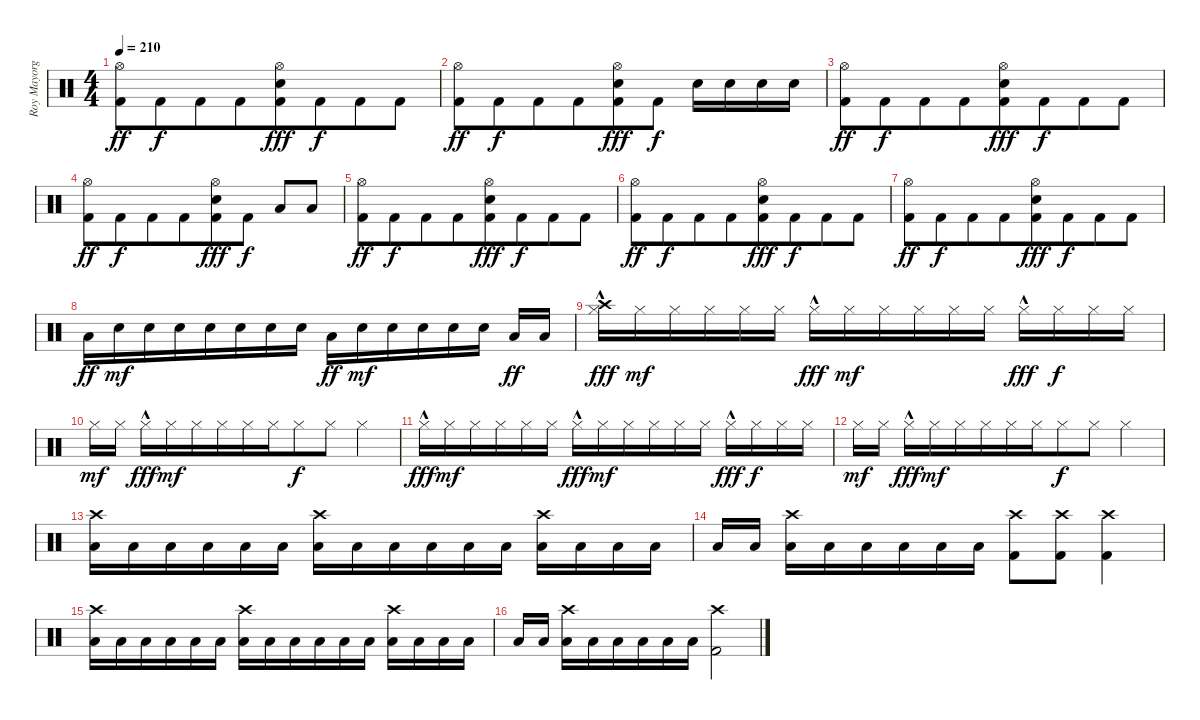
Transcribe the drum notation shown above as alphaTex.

\track ("Roy Mayorga" "Roy Mayorg") {instrument percussion}
\staff {score}
\articulation defaults
\ts (4 4)
\tempo 210
\clef neutral
\ks c
("Hi-Hat (open)" "Kick (hit) 2").8{dy ff} "Kick (hit) 2".8{dy f beam merge} "Kick (hit) 2".8 "Kick (hit) 2".8{beam merge} ("Hi-Hat (open)" "Electric Snare (hit)" "Kick (hit) 2").8{dy fff} "Kick (hit) 2".8{dy f beam merge} "Kick (hit) 2".8 "Kick (hit) 2".8 |
("Hi-Hat (open)" "Kick (hit) 2").8{dy ff} "Kick (hit) 2".8{dy f beam merge} "Kick (hit) 2".8 "Kick (hit) 2".8{beam merge} ("Hi-Hat (open)" "Electric Snare (hit)" "Kick (hit) 2").8{dy fff} "Kick (hit) 2".8{dy f} "Electric Snare (hit)".16 "Electric Snare (hit)".16 "Electric Snare (hit)".16 "Electric Snare (hit)".16 |
("Hi-Hat (open)" "Kick (hit) 2").8{dy ff} "Kick (hit) 2".8{dy f beam merge} "Kick (hit) 2".8 "Kick (hit) 2".8{beam merge} ("Hi-Hat (open)" "Electric Snare (hit)" "Kick (hit) 2").8{dy fff} "Kick (hit) 2".8{dy f beam merge} "Kick (hit) 2".8 "Kick (hit) 2".8 |
("Hi-Hat (open)" "Kick (hit) 2").8{dy ff} "Kick (hit) 2".8{dy f beam merge} "Kick (hit) 2".8 "Kick (hit) 2".8{beam merge} ("Hi-Hat (open)" "Electric Snare (hit)" "Kick (hit) 2").8{dy fff} "Kick (hit) 2".8{dy f} "Low Tom (hit)".8 "Low Floor Tom (hit)".8 |
("Hi-Hat (open)" "Kick (hit) 2").8{dy ff} "Kick (hit) 2".8{dy f beam merge} "Kick (hit) 2".8 "Kick (hit) 2".8{beam merge} ("Hi-Hat (open)" "Electric Snare (hit)" "Kick (hit) 2").8{dy fff} "Kick (hit) 2".8{dy f beam merge} "Kick (hit) 2".8 "Kick (hit) 2".8 |
("Hi-Hat (open)" "Kick (hit) 2").8{dy ff} "Kick (hit) 2".8{dy f beam merge} "Kick (hit) 2".8 "Kick (hit) 2".8{beam merge} ("Hi-Hat (open)" "Electric Snare (hit)" "Kick (hit) 2").8{dy fff} "Kick (hit) 2".8{dy f beam merge} "Kick (hit) 2".8 "Kick (hit) 2".8 |
("Hi-Hat (open)" "Kick (hit) 2").8{dy ff} "Kick (hit) 2".8{dy f beam merge} "Kick (hit) 2".8 "Kick (hit) 2".8{beam merge} ("Hi-Hat (open)" "Electric Snare (hit)" "Kick (hit) 2").8{dy fff} "Kick (hit) 2".8{dy f beam merge} "Kick (hit) 2".8 "Kick (hit) 2".8 |
"Low Tom (hit)".16{dy ff} "Electric Snare (hit)".16{dy mf} "Electric Snare (hit)".16 "Electric Snare (hit)".16{beam merge} "Electric Snare (hit)".16 "Electric Snare (hit)".16 "Electric Snare (hit)".16 "Electric Snare (hit)".16 "Low Tom (hit)".16{dy ff} "Electric Snare (hit)".16{dy mf} "Electric Snare (hit)".16 "Electric Snare (hit)".16{beam merge} "Electric Snare (hit)".16 "Electric Snare (hit)".16{beam split} "Low Tom (hit)".16{dy ff} "Low Floor Tom (hit)".16 |
("Crash high (hit)" "Hi-Hat (closed)"{hac}).16{dy fff} "Hi-Hat (closed)".16{dy mf} "Hi-Hat (closed)".16 "Hi-Hat (closed)".16{beam merge} "Hi-Hat (closed)".16 "Hi-Hat (closed)".16{beam split} "Hi-Hat (closed)"{hac}.16{dy fff} "Hi-Hat (closed)".16{dy mf beam merge} "Hi-Hat (closed)".16 "Hi-Hat (closed)".16 "Hi-Hat (closed)".16 "Hi-Hat (closed)".16{beam split} "Hi-Hat (closed)"{hac}.16{dy fff} "Hi-Hat (closed)".16{dy f} "Hi-Hat (closed)".16 "Hi-Hat (closed)".16 |
"Hi-Hat (closed)".16{dy mf} "Hi-Hat (closed)".16{beam split} "Hi-Hat (closed)"{hac}.16{dy fff} "Hi-Hat (closed)".16{dy mf beam merge} "Hi-Hat (closed)".16 "Hi-Hat (closed)".16 "Hi-Hat (closed)".16 "Hi-Hat (closed)".16{beam merge} "Hi-Hat (closed)".8{dy f} "Hi-Hat (closed)".8 "Hi-Hat (closed)".4 |
"Hi-Hat (closed)"{hac}.16{dy fff} "Hi-Hat (closed)".16{dy mf} "Hi-Hat (closed)".16 "Hi-Hat (closed)".16{beam merge} "Hi-Hat (closed)".16 "Hi-Hat (closed)".16{beam split} "Hi-Hat (closed)"{hac}.16{dy fff} "Hi-Hat (closed)".16{dy mf beam merge} "Hi-Hat (closed)".16 "Hi-Hat (closed)".16 "Hi-Hat (closed)".16 "Hi-Hat (closed)".16{beam split} "Hi-Hat (closed)"{hac}.16{dy fff} "Hi-Hat (closed)".16{dy f} "Hi-Hat (closed)".16 "Hi-Hat (closed)".16 |
"Hi-Hat (closed)".16{dy mf} "Hi-Hat (closed)".16{beam split} "Hi-Hat (closed)"{hac}.16{dy fff} "Hi-Hat (closed)".16{dy mf beam merge} "Hi-Hat (closed)".16 "Hi-Hat (closed)".16 "Hi-Hat (closed)".16 "Hi-Hat (closed)".16{beam merge} "Hi-Hat (closed)".8{dy f} "Hi-Hat (closed)".8 "Hi-Hat (closed)".4 |
("Crash high (hit)" "Low Tom (hit)").16 "Low Tom (hit)".16 "Low Tom (hit)".16 "Low Tom (hit)".16{beam merge} "Low Tom (hit)".16 "Low Tom (hit)".16{beam split} ("Crash high (hit)" "Low Tom (hit)").16 "Low Tom (hit)".16{beam merge} "Low Tom (hit)".16 "Low Tom (hit)".16 "Low Tom (hit)".16 "Low Tom (hit)".16{beam split} ("Crash high (hit)" "Low Tom (hit)").16 "Low Tom (hit)".16 "Low Tom (hit)".16 "Low Tom (hit)".16 |
"Low Tom (hit)".16 "Low Tom (hit)".16{beam split} ("Crash high (hit)" "Low Tom (hit)").16 "Low Tom (hit)".16{beam merge} "Low Tom (hit)".16 "Low Tom (hit)".16 "Low Tom (hit)".16 "Low Tom (hit)".16 ("Crash high (hit)" "Kick (hit) 2").8 ("Crash high (hit)" "Kick (hit) 2").8 ("Crash high (hit)" "Kick (hit) 2").4 |
("Crash high (hit)" "Low Tom (hit)").16 "Low Tom (hit)".16 "Low Tom (hit)".16 "Low Tom (hit)".16{beam merge} "Low Tom (hit)".16 "Low Tom (hit)".16{beam split} ("Crash high (hit)" "Low Tom (hit)").16 "Low Tom (hit)".16{beam merge} "Low Tom (hit)".16 "Low Tom (hit)".16 "Low Tom (hit)".16 "Low Tom (hit)".16{beam split} ("Crash high (hit)" "Low Tom (hit)").16 "Low Tom (hit)".16 "Low Tom (hit)".16 "Low Tom (hit)".16 |
"Low Tom (hit)".16 "Low Tom (hit)".16{beam split} ("Crash high (hit)" "Low Tom (hit)").16 "Low Tom (hit)".16{beam merge} "Low Tom (hit)".16 "Low Tom (hit)".16 "Low Tom (hit)".16 "Low Tom (hit)".16 ("Crash high (hit)" "Kick (hit) 2").2
